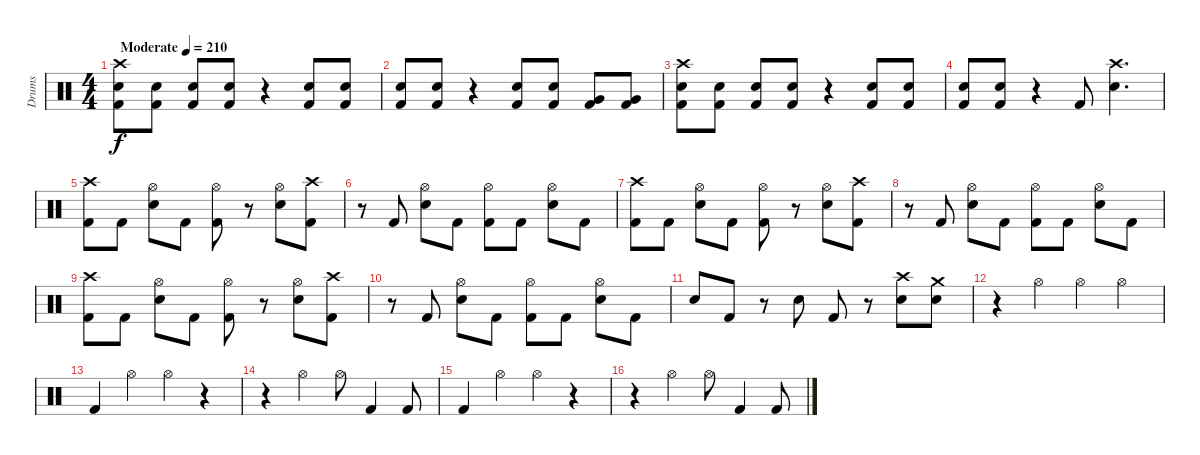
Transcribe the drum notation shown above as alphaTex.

\track ("Drums" "Drums") {instrument percussion}
\staff {score}
\articulation defaults
\ts (4 4)
\tempo (210 "Moderate")
\clef neutral
\ks c
("Crash high (hit)" "Snare (hit) 2" "Kick (hit) 2").8{dy f} ("Snare (hit) 2" "Kick (hit) 2").8 ("Snare (hit) 2" "Kick (hit) 2").8 ("Snare (hit) 2" "Kick (hit) 2").8 r.4 ("Snare (hit) 2" "Kick (hit) 2").8 ("Snare (hit) 2" "Kick (hit) 2").8 |
("Snare (hit) 2" "Kick (hit) 2").8 ("Snare (hit) 2" "Kick (hit) 2").8 r.4 ("Snare (hit) 2" "Kick (hit) 2").8 ("Snare (hit) 2" "Kick (hit) 2").8 ("Very Low Tom (hit)" "Kick (hit) 2").8 ("Very Low Tom (hit)" "Kick (hit) 2").8 |
("Crash high (hit)" "Snare (hit) 2" "Kick (hit) 2").8 ("Snare (hit) 2" "Kick (hit) 2").8 ("Snare (hit) 2" "Kick (hit) 2").8 ("Snare (hit) 2" "Kick (hit) 2").8 r.4 ("Snare (hit) 2" "Kick (hit) 2").8 ("Snare (hit) 2" "Kick (hit) 2").8 |
("Snare (hit) 2" "Kick (hit) 2").8 ("Snare (hit) 2" "Kick (hit) 2").8 r.4 "Kick (hit) 2".8 ("Crash high (hit)" "Snare (hit) 2").4{d} |
("Crash high (hit)" "Kick (hit) 2").8 "Kick (hit) 2".8 ("Hi-Hat (open)" "Snare (hit) 2").8 "Kick (hit) 2".8 ("Hi-Hat (open)" "Kick (hit) 2").8 r.8 ("Hi-Hat (open)" "Snare (hit) 2").8 ("Crash high (hit)" "Kick (hit) 2").8 |
r.8 "Kick (hit) 2".8 ("Hi-Hat (open)" "Snare (hit) 2").8 "Kick (hit) 2".8 ("Hi-Hat (open)" "Kick (hit) 2").8 "Kick (hit) 2".8 ("Hi-Hat (open)" "Snare (hit) 2").8 "Kick (hit) 2".8 |
("Crash high (hit)" "Kick (hit) 2").8 "Kick (hit) 2".8 ("Hi-Hat (open)" "Snare (hit) 2").8 "Kick (hit) 2".8 ("Hi-Hat (open)" "Kick (hit) 2").8 r.8 ("Hi-Hat (open)" "Snare (hit) 2").8 ("Crash high (hit)" "Kick (hit) 2").8 |
r.8 "Kick (hit) 2".8 ("Hi-Hat (open)" "Snare (hit) 2").8 "Kick (hit) 2".8 ("Hi-Hat (open)" "Kick (hit) 2").8 "Kick (hit) 2".8 ("Hi-Hat (open)" "Snare (hit) 2").8 "Kick (hit) 2".8 |
("Crash high (hit)" "Kick (hit) 2").8 "Kick (hit) 2".8 ("Hi-Hat (open)" "Snare (hit) 2").8 "Kick (hit) 2".8 ("Hi-Hat (open)" "Kick (hit) 2").8 r.8 ("Hi-Hat (open)" "Snare (hit) 2").8 ("Crash high (hit)" "Kick (hit) 2").8 |
r.8 "Kick (hit) 2".8 ("Hi-Hat (open)" "Snare (hit) 2").8 "Kick (hit) 2".8 ("Hi-Hat (open)" "Kick (hit) 2").8 "Kick (hit) 2".8 ("Hi-Hat (open)" "Snare (hit) 2").8 "Kick (hit) 2".8 |
"Snare (hit) 2".8 "Kick (hit) 2".8 r.8 "Snare (hit) 2".8 "Kick (hit) 2".8 r.8 ("Crash high (hit)" "Snare (hit) 2").8 ("Crash medium (hit)" "Snare (hit) 2").8 |
r.4 "Hi-Hat (open)".4 "Hi-Hat (open)".4 "Hi-Hat (open)".4 |
"Kick (hit) 2".4 "Hi-Hat (open)".4 "Hi-Hat (open)".4 r.4 |
r.4 "Hi-Hat (open)".4 "Hi-Hat (open)".8 "Kick (hit) 2".4 "Kick (hit) 2".8 |
"Kick (hit) 2".4 "Hi-Hat (open)".4 "Hi-Hat (open)".4 r.4 |
r.4 "Hi-Hat (open)".4 "Hi-Hat (open)".8 "Kick (hit) 2".4 "Kick (hit) 2".8
